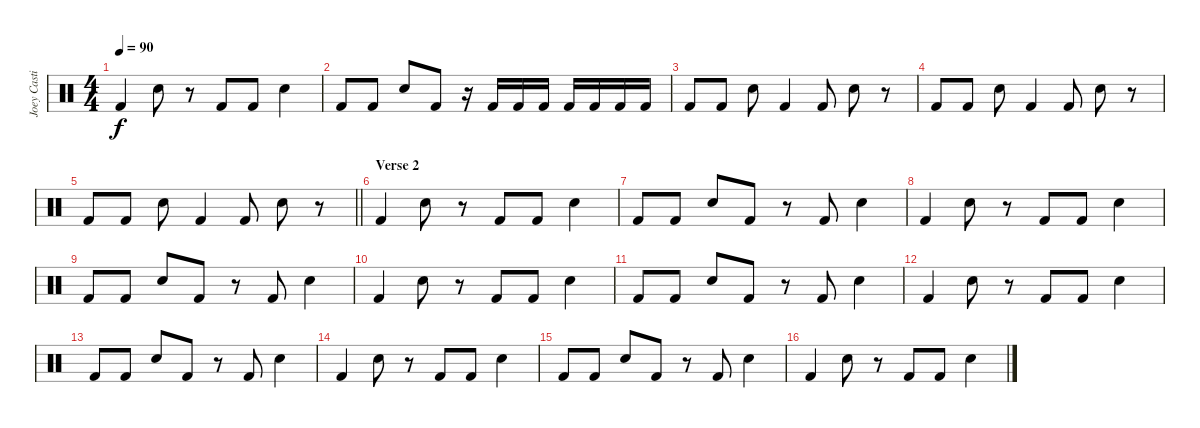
\track ("Joey Castillo" "Joey Casti") {instrument percussion}
\staff {score}
\articulation defaults
\ts (4 4)
\section ("" "")
\tempo 90
\clef neutral
\ks c "Kick (hit) 2".4{dy f} "Electric Snare (hit)".8
r.8 "Kick (hit) 2".8 "Kick (hit) 2".8 "Electric Snare (hit)".4 |
"Kick (hit) 2".8 "Kick (hit) 2".8 "Electric Snare (hit)".8 "Kick (hit) 2".8 r.16 "Kick (hit) 2".16 "Kick (hit) 2".16 "Kick (hit) 2".16 "Kick (hit) 2".16 "Kick (hit) 2".16 "Kick (hit) 2".16 "Kick (hit) 2".16 |
"Kick (hit) 2".8 "Kick (hit) 2".8 "Electric Snare (hit)".8 "Kick (hit) 2".4 "Kick (hit) 2".8 "Electric Snare (hit)".8 r.8 |
"Kick (hit) 2".8 "Kick (hit) 2".8 "Electric Snare (hit)".8 "Kick (hit) 2".4 "Kick (hit) 2".8 "Electric Snare (hit)".8 r.8 |
\barLineRight lightlight "Kick (hit) 2".8 "Kick (hit) 2".8 "Electric Snare (hit)".8 "Kick (hit) 2".4 "Kick (hit) 2".8 "Electric Snare (hit)".8
r.8 |
\section ("" "Verse 2")
"Kick (hit) 2".4 "Electric Snare (hit)".8 r.8 "Kick (hit) 2".8 "Kick (hit) 2".8 "Electric Snare (hit)".4 |
"Kick (hit) 2".8 "Kick (hit) 2".8 "Electric Snare (hit)".8 "Kick (hit) 2".8 r.8 "Kick (hit) 2".8 "Electric Snare (hit)".4 |
"Kick (hit) 2".4 "Electric Snare (hit)".8 r.8 "Kick (hit) 2".8 "Kick (hit) 2".8 "Electric Snare (hit)".4 |
"Kick (hit) 2".8 "Kick (hit) 2".8 "Electric Snare (hit)".8 "Kick (hit) 2".8 r.8 "Kick (hit) 2".8 "Electric Snare (hit)".4 |
"Kick (hit) 2".4 "Electric Snare (hit)".8 r.8 "Kick (hit) 2".8 "Kick (hit) 2".8 "Electric Snare (hit)".4 |
"Kick (hit) 2".8 "Kick (hit) 2".8 "Electric Snare (hit)".8 "Kick (hit) 2".8 r.8 "Kick (hit) 2".8 "Electric Snare (hit)".4 |
"Kick (hit) 2".4 "Electric Snare (hit)".8 r.8 "Kick (hit) 2".8 "Kick (hit) 2".8 "Electric Snare (hit)".4 |
"Kick (hit) 2".8 "Kick (hit) 2".8 "Electric Snare (hit)".8 "Kick (hit) 2".8 r.8 "Kick (hit) 2".8 "Electric Snare (hit)".4 |
"Kick (hit) 2".4 "Electric Snare (hit)".8 r.8 "Kick (hit) 2".8 "Kick (hit) 2".8 "Electric Snare (hit)".4 |
"Kick (hit) 2".8 "Kick (hit) 2".8 "Electric Snare (hit)".8 "Kick (hit) 2".8 r.8 "Kick (hit) 2".8 "Electric Snare (hit)".4 |
"Kick (hit) 2".4 "Electric Snare (hit)".8 r.8 "Kick (hit) 2".8 "Kick (hit) 2".8 "Electric Snare (hit)".4
